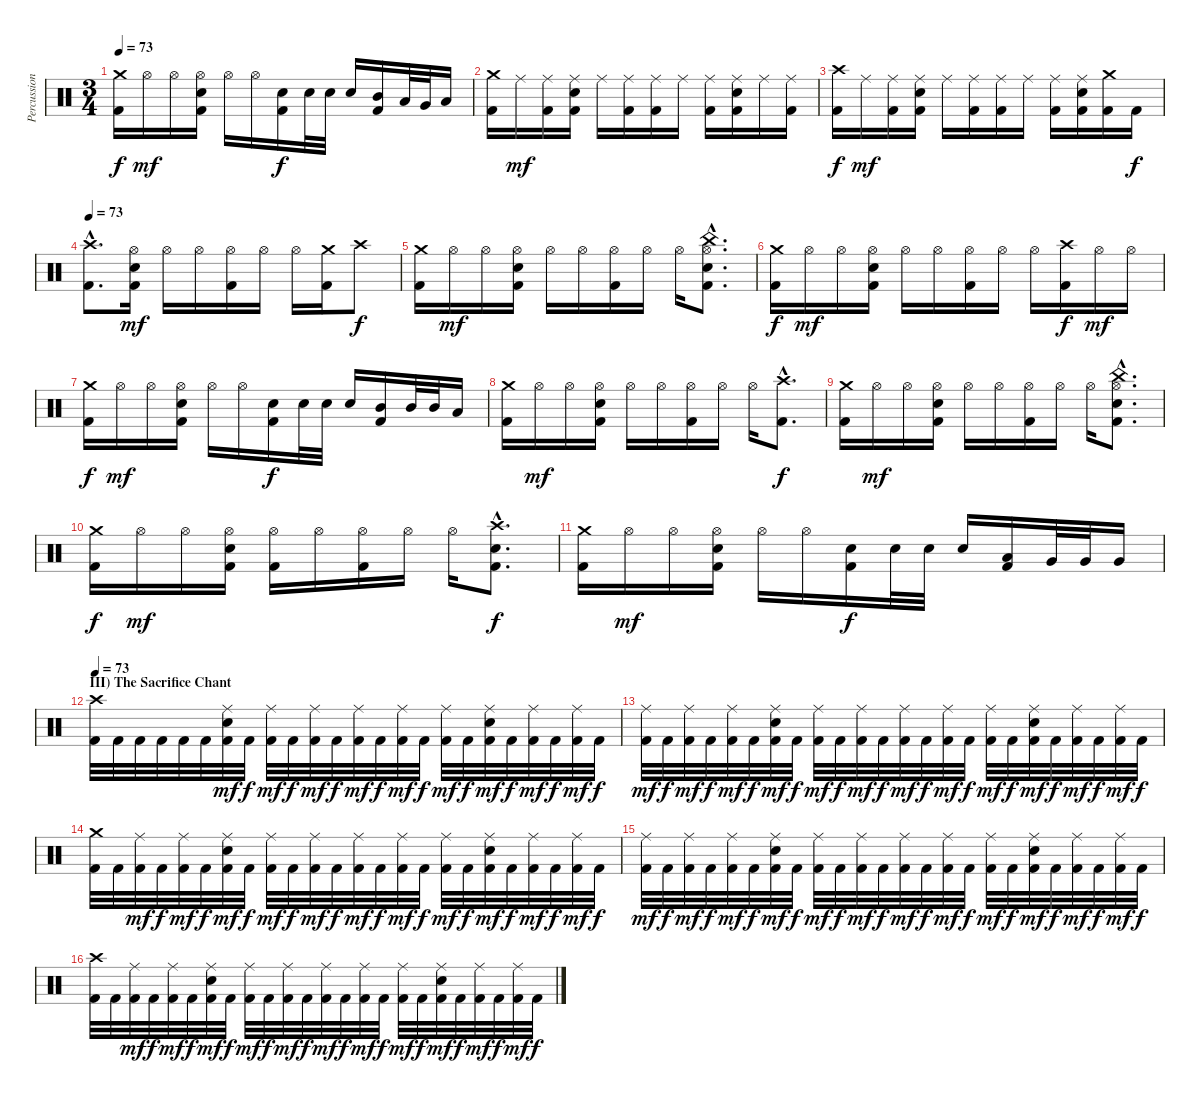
\track ("Percussion" "Percussion") {instrument percussion}
\staff {score}
\articulation defaults
\ts (3 4)
\tempo 73
\clef neutral
\ks c
("Crash medium (hit)" "Kick (hit) 2").16{dy f} "Hi-Hat (open)".16{dy mf} "Hi-Hat (open)".16 ("Hi-Hat (open)" "Electric Snare (hit)" "Kick (hit) 2").16 "Hi-Hat (open)".16 "Hi-Hat (open)".16 ("Electric Snare (hit)" "Kick (hit) 2").16{dy f} "Electric Snare (hit)".32 "Electric Snare (hit)".32 "Electric Snare (hit)".16 ("Mid Tom (hit)" "Kick (hit) 2").16 "Low Tom (hit)".32 "Very Low Tom (hit)".32 "Low Floor Tom (hit)".16 |
("Crash medium (hit)" "Kick (hit) 2").16 "Ride (middle)".16{dy mf} ("Ride (middle)" "Kick (hit) 2").16 ("Ride (middle)" "Electric Snare (hit)" "Kick (hit) 2").16 "Ride (middle)".16 ("Ride (middle)" "Kick (hit) 2").16 ("Ride (middle)" "Kick (hit) 2").16 "Ride (middle)".16 ("Ride (middle)" "Kick (hit) 2").16 ("Ride (middle)" "Electric Snare (hit)" "Kick (hit) 2").16 "Ride (middle)".16 ("Ride (middle)" "Kick (hit) 2").16 |
("Crash high (hit)" "Kick (hit) 2").16{dy f} "Ride (middle)".16{dy mf} ("Ride (middle)" "Kick (hit) 2").16 ("Ride (middle)" "Electric Snare (hit)" "Kick (hit) 2").16 "Ride (middle)".16 ("Ride (middle)" "Kick (hit) 2").16 ("Ride (middle)" "Kick (hit) 2").16 "Ride (middle)".16 ("Ride (middle)" "Kick (hit) 2").16 ("Ride (middle)" "Electric Snare (hit)" "Kick (hit) 2").16 ("Crash medium (hit)" "Kick (hit) 2").16 "Kick (hit) 2".16{dy f} |
\tempo 73
("Crash high (hit)"{hac} "Kick (hit) 2"{hac}).8{d} ("Hi-Hat (open)" "Electric Snare (hit)" "Kick (hit) 2").16{dy mf} "Hi-Hat (open)".16 "Hi-Hat (open)".16 ("Hi-Hat (open)" "Kick (hit) 2").16 "Hi-Hat (open)".16 "Hi-Hat (open)".16 ("Crash medium (hit)" "Kick (hit) 2").16 "Crash high (hit)".8{dy f} |
("Crash medium (hit)" "Kick (hit) 2").16 "Hi-Hat (open)".16{dy mf} "Hi-Hat (open)".16 ("Hi-Hat (open)" "Electric Snare (hit)" "Kick (hit) 2").16 "Hi-Hat (open)".16 "Hi-Hat (open)".16 ("Hi-Hat (open)" "Kick (hit) 2").16 "Hi-Hat (open)".16 "Hi-Hat (open)".16 ("China (hit)"{hac} "Hi-Hat (open)"{hac} "Electric Snare (hit)"{hac} "Kick (hit) 2"{hac}).8{d} |
("Crash medium (hit)" "Kick (hit) 2").16{dy f} "Hi-Hat (open)".16{dy mf} "Hi-Hat (open)".16 ("Hi-Hat (open)" "Electric Snare (hit)" "Kick (hit) 2").16 "Hi-Hat (open)".16 "Hi-Hat (open)".16 ("Hi-Hat (open)" "Kick (hit) 2").16 "Hi-Hat (open)".16 "Hi-Hat (open)".16 ("Crash high (hit)" "Kick (hit) 2").16{dy f} "Hi-Hat (open)".16{dy mf} "Hi-Hat (open)".16 |
("Crash medium (hit)" "Kick (hit) 2").16{dy f} "Hi-Hat (open)".16{dy mf} "Hi-Hat (open)".16 ("Hi-Hat (open)" "Electric Snare (hit)" "Kick (hit) 2").16 "Hi-Hat (open)".16 "Hi-Hat (open)".16 ("Electric Snare (hit)" "Kick (hit) 2").16{dy f} "Electric Snare (hit)".32 "Electric Snare (hit)".32 "Electric Snare (hit)".16 ("Mid Tom (hit)" "Kick (hit) 2").16 "Mid Tom (hit)".32 "Mid Tom (hit)".32 "Low Tom (hit)".16 |
("Crash medium (hit)" "Kick (hit) 2").16 "Hi-Hat (open)".16{dy mf} "Hi-Hat (open)".16 ("Hi-Hat (open)" "Electric Snare (hit)" "Kick (hit) 2").16 "Hi-Hat (open)".16 "Hi-Hat (open)".16 ("Hi-Hat (open)" "Kick (hit) 2").16 "Hi-Hat (open)".16 "Hi-Hat (open)".16 ("Crash high (hit)"{hac} "Kick (hit) 2"{hac}).8{d dy f} |
("Crash medium (hit)" "Kick (hit) 2").16 "Hi-Hat (open)".16{dy mf} "Hi-Hat (open)".16 ("Hi-Hat (open)" "Electric Snare (hit)" "Kick (hit) 2").16 "Hi-Hat (open)".16 "Hi-Hat (open)".16 ("Hi-Hat (open)" "Kick (hit) 2").16 "Hi-Hat (open)".16 "Hi-Hat (open)".16 ("China (hit)"{hac} "Hi-Hat (open)"{hac} "Electric Snare (hit)"{hac} "Kick (hit) 2"{hac}).8{d} |
("Crash medium (hit)" "Kick (hit) 2").16{dy f} "Hi-Hat (open)".16{dy mf} "Hi-Hat (open)".16 ("Hi-Hat (open)" "Electric Snare (hit)" "Kick (hit) 2").16 ("Hi-Hat (open)" "Kick (hit) 2").16 "Hi-Hat (open)".16 ("Hi-Hat (open)" "Kick (hit) 2").16 "Hi-Hat (open)".16 "Hi-Hat (open)".16 ("Crash high (hit)"{hac} "Electric Snare (hit)"{hac} "Kick (hit) 2"{hac}).8{d dy f} |
("Crash medium (hit)" "Kick (hit) 2").16 "Hi-Hat (open)".16{dy mf} "Hi-Hat (open)".16 ("Hi-Hat (open)" "Electric Snare (hit)" "Kick (hit) 2").16 "Hi-Hat (open)".16 "Hi-Hat (open)".16 ("Electric Snare (hit)" "Kick (hit) 2").16{dy f} "Electric Snare (hit)".32 "Electric Snare (hit)".32 "Electric Snare (hit)".16 ("Low Tom (hit)" "Kick (hit) 2").16 "Very Low Tom (hit)".32 "Very Low Tom (hit)".32 "Very Low Tom (hit)".16 |
\section ("" "III) The Sacrifice Chant")
\tempo 73
("Crash high (hit)" "Kick (hit) 2").32 "Kick (hit) 2".32 "Kick (hit) 2".32 "Kick (hit) 2".32 "Kick (hit) 2".32 "Kick (hit) 2".32 ("Ride (middle)" "Electric Snare (hit)" "Kick (hit) 2").32{dy mf} "Kick (hit) 2".32{dy f} ("Ride (middle)" "Kick (hit) 2").32{dy mf} "Kick (hit) 2".32{dy f} ("Ride (middle)" "Kick (hit) 2").32{dy mf} "Kick (hit) 2".32{dy f} ("Ride (middle)" "Kick (hit) 2").32{dy mf} "Kick (hit) 2".32{dy f} ("Ride (middle)" "Kick (hit) 2").32{dy mf} "Kick (hit) 2".32{dy f} ("Ride (middle)" "Kick (hit) 2").32{dy mf} "Kick (hit) 2".32{dy f} ("Ride (middle)" "Electric Snare (hit)" "Kick (hit) 2").32{dy mf} "Kick (hit) 2".32{dy f} ("Ride (middle)" "Kick (hit) 2").32{dy mf} "Kick (hit) 2".32{dy f} ("Ride (middle)" "Kick (hit) 2").32{dy mf} "Kick (hit) 2".32{dy f} |
("Ride (middle)" "Kick (hit) 2").32{dy mf} "Kick (hit) 2".32{dy f} ("Ride (middle)" "Kick (hit) 2").32{dy mf} "Kick (hit) 2".32{dy f} ("Ride (middle)" "Kick (hit) 2").32{dy mf} "Kick (hit) 2".32{dy f} ("Ride (middle)" "Electric Snare (hit)" "Kick (hit) 2").32{dy mf} "Kick (hit) 2".32{dy f} ("Ride (middle)" "Kick (hit) 2").32{dy mf} "Kick (hit) 2".32{dy f} ("Ride (middle)" "Kick (hit) 2").32{dy mf} "Kick (hit) 2".32{dy f} ("Ride (middle)" "Kick (hit) 2").32{dy mf} "Kick (hit) 2".32{dy f} ("Ride (middle)" "Kick (hit) 2").32{dy mf} "Kick (hit) 2".32{dy f} ("Ride (middle)" "Kick (hit) 2").32{dy mf} "Kick (hit) 2".32{dy f} ("Ride (middle)" "Electric Snare (hit)" "Kick (hit) 2").32{dy mf} "Kick (hit) 2".32{dy f} ("Ride (middle)" "Kick (hit) 2").32{dy mf} "Kick (hit) 2".32{dy f} ("Ride (middle)" "Kick (hit) 2").32{dy mf} "Kick (hit) 2".32{dy f} |
("Crash medium (hit)" "Kick (hit) 2").32 "Kick (hit) 2".32 ("Ride (middle)" "Kick (hit) 2").32{dy mf} "Kick (hit) 2".32{dy f} ("Ride (middle)" "Kick (hit) 2").32{dy mf} "Kick (hit) 2".32{dy f} ("Ride (middle)" "Electric Snare (hit)" "Kick (hit) 2").32{dy mf} "Kick (hit) 2".32{dy f} ("Ride (middle)" "Kick (hit) 2").32{dy mf} "Kick (hit) 2".32{dy f} ("Ride (middle)" "Kick (hit) 2").32{dy mf} "Kick (hit) 2".32{dy f} ("Ride (middle)" "Kick (hit) 2").32{dy mf} "Kick (hit) 2".32{dy f} ("Ride (middle)" "Kick (hit) 2").32{dy mf} "Kick (hit) 2".32{dy f} ("Ride (middle)" "Kick (hit) 2").32{dy mf} "Kick (hit) 2".32{dy f} ("Ride (middle)" "Electric Snare (hit)" "Kick (hit) 2").32{dy mf} "Kick (hit) 2".32{dy f} ("Ride (middle)" "Kick (hit) 2").32{dy mf} "Kick (hit) 2".32{dy f} ("Ride (middle)" "Kick (hit) 2").32{dy mf} "Kick (hit) 2".32{dy f} |
("Ride (middle)" "Kick (hit) 2").32{dy mf} "Kick (hit) 2".32{dy f} ("Ride (middle)" "Kick (hit) 2").32{dy mf} "Kick (hit) 2".32{dy f} ("Ride (middle)" "Kick (hit) 2").32{dy mf} "Kick (hit) 2".32{dy f} ("Ride (middle)" "Electric Snare (hit)" "Kick (hit) 2").32{dy mf} "Kick (hit) 2".32{dy f} ("Ride (middle)" "Kick (hit) 2").32{dy mf} "Kick (hit) 2".32{dy f} ("Ride (middle)" "Kick (hit) 2").32{dy mf} "Kick (hit) 2".32{dy f} ("Ride (middle)" "Kick (hit) 2").32{dy mf} "Kick (hit) 2".32{dy f} ("Ride (middle)" "Kick (hit) 2").32{dy mf} "Kick (hit) 2".32{dy f} ("Ride (middle)" "Kick (hit) 2").32{dy mf} "Kick (hit) 2".32{dy f} ("Ride (middle)" "Electric Snare (hit)" "Kick (hit) 2").32{dy mf} "Kick (hit) 2".32{dy f} ("Ride (middle)" "Kick (hit) 2").32{dy mf} "Kick (hit) 2".32{dy f} ("Ride (middle)" "Kick (hit) 2").32{dy mf} "Kick (hit) 2".32{dy f} |
("Crash high (hit)" "Kick (hit) 2").32 "Kick (hit) 2".32 ("Ride (middle)" "Kick (hit) 2").32{dy mf} "Kick (hit) 2".32{dy f} ("Ride (middle)" "Kick (hit) 2").32{dy mf} "Kick (hit) 2".32{dy f} ("Ride (middle)" "Electric Snare (hit)" "Kick (hit) 2").32{dy mf} "Kick (hit) 2".32{dy f} ("Ride (middle)" "Kick (hit) 2").32{dy mf} "Kick (hit) 2".32{dy f} ("Ride (middle)" "Kick (hit) 2").32{dy mf} "Kick (hit) 2".32{dy f} ("Ride (middle)" "Kick (hit) 2").32{dy mf} "Kick (hit) 2".32{dy f} ("Ride (middle)" "Kick (hit) 2").32{dy mf} "Kick (hit) 2".32{dy f} ("Ride (middle)" "Kick (hit) 2").32{dy mf} "Kick (hit) 2".32{dy f} ("Ride (middle)" "Electric Snare (hit)" "Kick (hit) 2").32{dy mf} "Kick (hit) 2".32{dy f} ("Ride (middle)" "Kick (hit) 2").32{dy mf} "Kick (hit) 2".32{dy f} ("Ride (middle)" "Kick (hit) 2").32{dy mf} "Kick (hit) 2".32{dy f}
